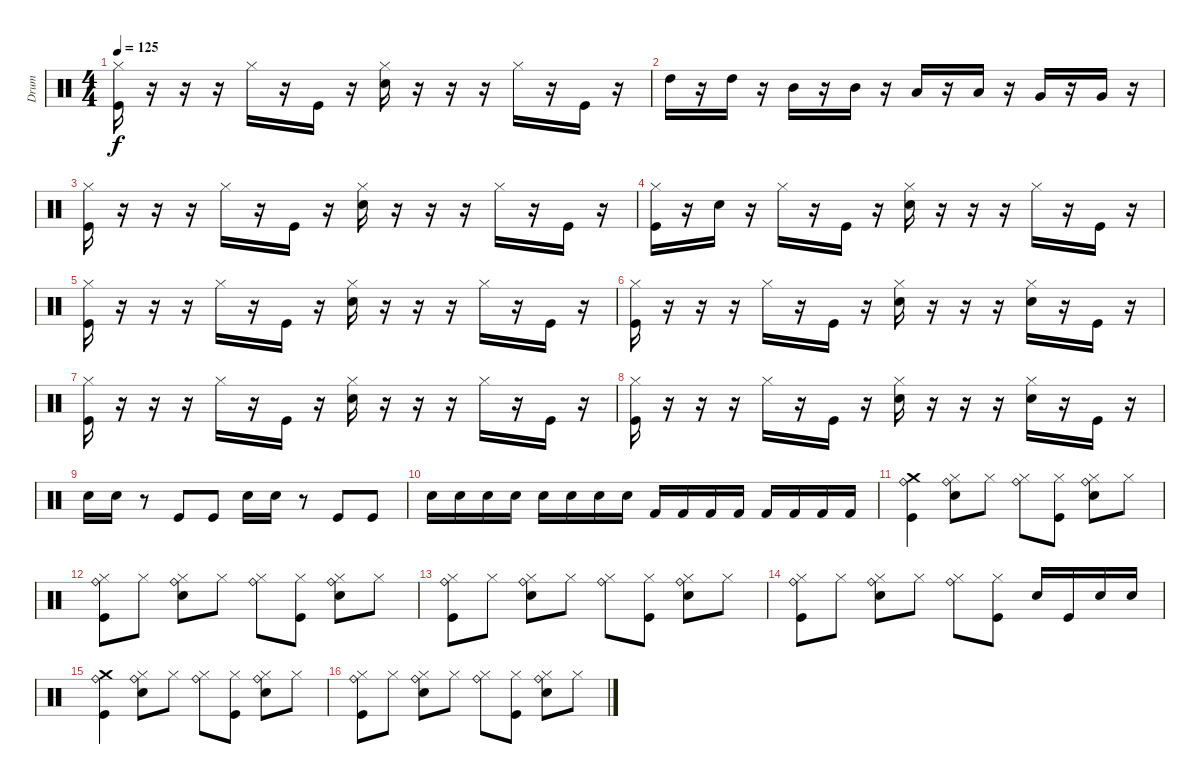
\track ("Drum" "Drum") {instrument percussion}
\staff {score}
\articulation defaults
\ts (4 4)
\tempo 125
\clef neutral
\ks c
("Kick (hit)" "Hi-Hat (closed)").16{dy f} r.16 r.16 r.16 "Hi-Hat (closed)".16 r.16 "Kick (hit)".16 r.16 ("Electric Snare (hit)" "Hi-Hat (closed)").16 r.16 r.16 r.16 "Hi-Hat (closed)".16 r.16 "Kick (hit)".16 r.16 |
"High Tom (hit)".16 r.16 "High Tom (hit)".16 r.16 "Mid Tom (hit)".16 r.16 "Mid Tom (hit)".16 r.16 "Low Tom (hit)".16 r.16 "Low Tom (hit)".16 r.16 "Very Low Tom (hit)".16 r.16 "Very Low Tom (hit)".16 r.16 |
("Kick (hit)" "Hi-Hat (closed)").16 r.16 r.16 r.16 "Hi-Hat (closed)".16 r.16 "Kick (hit)".16 r.16 ("Electric Snare (hit)" "Hi-Hat (closed)").16 r.16 r.16 r.16 "Hi-Hat (closed)".16 r.16 "Kick (hit)".16 r.16 |
("Kick (hit)" "Hi-Hat (closed)").16 r.16 "Electric Snare (hit)".16 r.16 "Hi-Hat (closed)".16 r.16 "Kick (hit)".16 r.16 ("Electric Snare (hit)" "Hi-Hat (closed)").16 r.16 r.16 r.16 "Hi-Hat (closed)".16 r.16 "Kick (hit)".16 r.16 |
("Kick (hit)" "Hi-Hat (closed)").16 r.16 r.16 r.16 "Hi-Hat (closed)".16 r.16 "Kick (hit)".16 r.16 ("Electric Snare (hit)" "Hi-Hat (closed)").16 r.16 r.16 r.16 "Hi-Hat (closed)".16 r.16 "Kick (hit)".16 r.16 |
("Kick (hit)" "Hi-Hat (closed)").16 r.16 r.16 r.16 "Hi-Hat (closed)".16 r.16 "Kick (hit)".16 r.16 ("Electric Snare (hit)" "Hi-Hat (closed)").16 r.16 r.16 r.16 ("Electric Snare (hit)" "Hi-Hat (closed)").16 r.16 "Kick (hit)".16 r.16 |
("Kick (hit)" "Hi-Hat (closed)").16 r.16 r.16 r.16 "Hi-Hat (closed)".16 r.16 "Kick (hit)".16 r.16 ("Electric Snare (hit)" "Hi-Hat (closed)").16 r.16 r.16 r.16 "Hi-Hat (closed)".16 r.16 "Kick (hit)".16 r.16 |
("Kick (hit)" "Hi-Hat (closed)").16 r.16 r.16 r.16 "Hi-Hat (closed)".16 r.16 "Kick (hit)".16 r.16 ("Electric Snare (hit)" "Hi-Hat (closed)").16 r.16 r.16 r.16 ("Electric Snare (hit)" "Hi-Hat (closed)").16 r.16 "Kick (hit)".16 r.16 |
"Electric Snare (hit)".16 "Electric Snare (hit)".16 r.8 "Kick (hit)".8 "Kick (hit)".8 "Electric Snare (hit)".16 "Electric Snare (hit)".16 r.8 "Kick (hit)".8 "Kick (hit)".8 |
"Electric Snare (hit)".16 "Electric Snare (hit)".16 "Electric Snare (hit)".16 "Electric Snare (hit)".16 "Electric Snare (hit)".16 "Electric Snare (hit)".16 "Electric Snare (hit)".16 "Electric Snare (hit)".16 "Kick (hit) 2".16 "Kick (hit) 2".16 "Kick (hit) 2".16 "Kick (hit) 2".16 "Kick (hit) 2".16 "Kick (hit) 2".16 "Kick (hit) 2".16 "Kick (hit) 2".16 |
("Kick (hit)" "Crash medium (hit)" "Ride (bell)").4 ("Electric Snare (hit)" "Hi-Hat (closed)" "Ride (bell)").8 "Hi-Hat (closed)".8 ("Hi-Hat (closed)" "Ride (bell)").8 ("Kick (hit)" "Hi-Hat (closed)").8 ("Electric Snare (hit)" "Hi-Hat (closed)" "Ride (bell)").8 "Hi-Hat (closed)".8 |
("Kick (hit)" "Hi-Hat (closed)" "Ride (bell)").8 "Hi-Hat (closed)".8 ("Electric Snare (hit)" "Hi-Hat (closed)" "Ride (bell)").8 "Hi-Hat (closed)".8 ("Hi-Hat (closed)" "Ride (bell)").8 ("Kick (hit)" "Hi-Hat (closed)").8 ("Electric Snare (hit)" "Hi-Hat (closed)" "Ride (bell)").8 "Hi-Hat (closed)".8 |
("Kick (hit)" "Hi-Hat (closed)" "Ride (bell)").8 "Hi-Hat (closed)".8 ("Electric Snare (hit)" "Hi-Hat (closed)" "Ride (bell)").8 "Hi-Hat (closed)".8 ("Hi-Hat (closed)" "Ride (bell)").8 ("Kick (hit)" "Hi-Hat (closed)").8 ("Electric Snare (hit)" "Hi-Hat (closed)" "Ride (bell)").8 "Hi-Hat (closed)".8 |
("Kick (hit)" "Hi-Hat (closed)" "Ride (bell)").8 "Hi-Hat (closed)".8 ("Electric Snare (hit)" "Hi-Hat (closed)" "Ride (bell)").8 "Hi-Hat (closed)".8 ("Hi-Hat (closed)" "Ride (bell)").8 ("Kick (hit)" "Hi-Hat (closed)").8 "Electric Snare (hit)".16 "Kick (hit)".16 "Snare (hit) 2".16 "Electric Snare (hit)".16 |
("Kick (hit)" "Crash medium (hit)" "Ride (bell)").4 ("Electric Snare (hit)" "Hi-Hat (closed)" "Ride (bell)").8 "Hi-Hat (closed)".8 ("Hi-Hat (closed)" "Ride (bell)").8 ("Kick (hit)" "Hi-Hat (closed)").8 ("Electric Snare (hit)" "Hi-Hat (closed)" "Ride (bell)").8 "Hi-Hat (closed)".8 |
("Kick (hit)" "Hi-Hat (closed)" "Ride (bell)").8 "Hi-Hat (closed)".8 ("Electric Snare (hit)" "Hi-Hat (closed)" "Ride (bell)").8 "Hi-Hat (closed)".8 ("Hi-Hat (closed)" "Ride (bell)").8 ("Kick (hit)" "Hi-Hat (closed)").8 ("Electric Snare (hit)" "Hi-Hat (closed)" "Ride (bell)").8 "Hi-Hat (closed)".8
